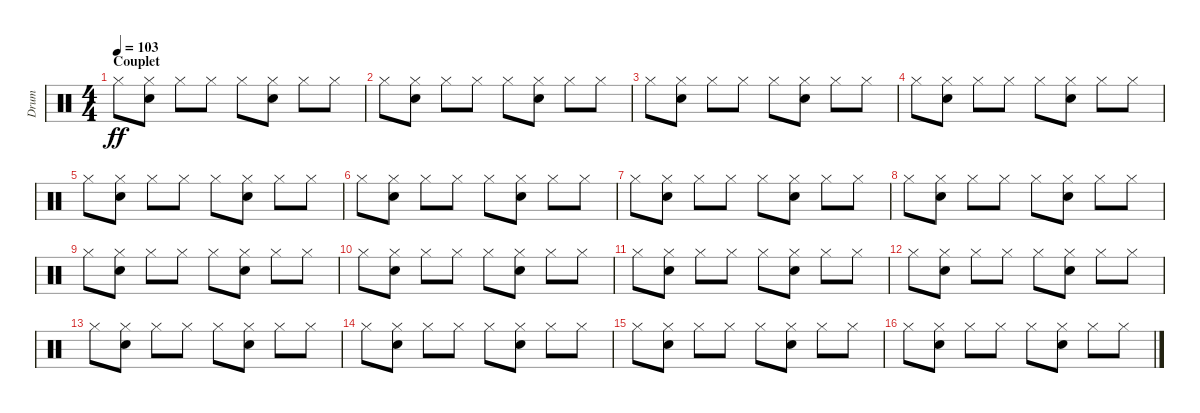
\track ("Drum" "Drum") {instrument percussion}
\staff {score}
\articulation defaults
\ts (4 4)
\section ("" "Couplet")
\tempo 103
\clef neutral
\ks c "Hi-Hat (closed)".8{dy ff}
("Hi-Hat (closed)" "Electric Snare (hit)").8 "Hi-Hat (closed)".8 "Hi-Hat (closed)".8 "Hi-Hat (closed)".8 ("Hi-Hat (closed)" "Electric Snare (hit)").8 "Hi-Hat (closed)".8 "Hi-Hat (closed)".8 |
"Hi-Hat (closed)".8 ("Hi-Hat (closed)" "Electric Snare (hit)").8 "Hi-Hat (closed)".8 "Hi-Hat (closed)".8 "Hi-Hat (closed)".8 ("Hi-Hat (closed)" "Electric Snare (hit)").8 "Hi-Hat (closed)".8 "Hi-Hat (closed)".8 |
"Hi-Hat (closed)".8 ("Hi-Hat (closed)" "Electric Snare (hit)").8 "Hi-Hat (closed)".8 "Hi-Hat (closed)".8 "Hi-Hat (closed)".8 ("Hi-Hat (closed)" "Electric Snare (hit)").8 "Hi-Hat (closed)".8 "Hi-Hat (closed)".8 |
"Hi-Hat (closed)".8 ("Hi-Hat (closed)" "Electric Snare (hit)").8 "Hi-Hat (closed)".8 "Hi-Hat (closed)".8 "Hi-Hat (closed)".8 ("Hi-Hat (closed)" "Electric Snare (hit)").8 "Hi-Hat (closed)".8 "Hi-Hat (closed)".8 |
"Hi-Hat (closed)".8 ("Hi-Hat (closed)" "Electric Snare (hit)").8 "Hi-Hat (closed)".8 "Hi-Hat (closed)".8 "Hi-Hat (closed)".8 ("Hi-Hat (closed)" "Electric Snare (hit)").8 "Hi-Hat (closed)".8 "Hi-Hat (closed)".8 |
"Hi-Hat (closed)".8 ("Hi-Hat (closed)" "Electric Snare (hit)").8 "Hi-Hat (closed)".8 "Hi-Hat (closed)".8 "Hi-Hat (closed)".8 ("Hi-Hat (closed)" "Electric Snare (hit)").8 "Hi-Hat (closed)".8 "Hi-Hat (closed)".8 |
"Hi-Hat (closed)".8 ("Hi-Hat (closed)" "Electric Snare (hit)").8 "Hi-Hat (closed)".8 "Hi-Hat (closed)".8 "Hi-Hat (closed)".8 ("Hi-Hat (closed)" "Electric Snare (hit)").8 "Hi-Hat (closed)".8 "Hi-Hat (closed)".8 |
"Hi-Hat (closed)".8 ("Hi-Hat (closed)" "Electric Snare (hit)").8 "Hi-Hat (closed)".8 "Hi-Hat (closed)".8 "Hi-Hat (closed)".8 ("Hi-Hat (closed)" "Electric Snare (hit)").8 "Hi-Hat (closed)".8 "Hi-Hat (closed)".8 |
"Hi-Hat (closed)".8 ("Hi-Hat (closed)" "Electric Snare (hit)").8 "Hi-Hat (closed)".8 "Hi-Hat (closed)".8 "Hi-Hat (closed)".8 ("Hi-Hat (closed)" "Electric Snare (hit)").8 "Hi-Hat (closed)".8 "Hi-Hat (closed)".8 |
"Hi-Hat (closed)".8 ("Hi-Hat (closed)" "Electric Snare (hit)").8 "Hi-Hat (closed)".8 "Hi-Hat (closed)".8 "Hi-Hat (closed)".8 ("Hi-Hat (closed)" "Electric Snare (hit)").8 "Hi-Hat (closed)".8 "Hi-Hat (closed)".8 |
"Hi-Hat (closed)".8 ("Hi-Hat (closed)" "Electric Snare (hit)").8 "Hi-Hat (closed)".8 "Hi-Hat (closed)".8 "Hi-Hat (closed)".8 ("Hi-Hat (closed)" "Electric Snare (hit)").8 "Hi-Hat (closed)".8 "Hi-Hat (closed)".8 |
"Hi-Hat (closed)".8 ("Hi-Hat (closed)" "Electric Snare (hit)").8 "Hi-Hat (closed)".8 "Hi-Hat (closed)".8 "Hi-Hat (closed)".8 ("Hi-Hat (closed)" "Electric Snare (hit)").8 "Hi-Hat (closed)".8 "Hi-Hat (closed)".8 |
"Hi-Hat (closed)".8 ("Hi-Hat (closed)" "Electric Snare (hit)").8 "Hi-Hat (closed)".8 "Hi-Hat (closed)".8 "Hi-Hat (closed)".8 ("Hi-Hat (closed)" "Electric Snare (hit)").8 "Hi-Hat (closed)".8 "Hi-Hat (closed)".8 |
"Hi-Hat (closed)".8 ("Hi-Hat (closed)" "Electric Snare (hit)").8 "Hi-Hat (closed)".8 "Hi-Hat (closed)".8 "Hi-Hat (closed)".8 ("Hi-Hat (closed)" "Electric Snare (hit)").8 "Hi-Hat (closed)".8 "Hi-Hat (closed)".8 |
"Hi-Hat (closed)".8 ("Hi-Hat (closed)" "Electric Snare (hit)").8 "Hi-Hat (closed)".8 "Hi-Hat (closed)".8 "Hi-Hat (closed)".8 ("Hi-Hat (closed)" "Electric Snare (hit)").8 "Hi-Hat (closed)".8 "Hi-Hat (closed)".8 |
"Hi-Hat (closed)".8 ("Hi-Hat (closed)" "Electric Snare (hit)").8 "Hi-Hat (closed)".8 "Hi-Hat (closed)".8 "Hi-Hat (closed)".8 ("Hi-Hat (closed)" "Electric Snare (hit)").8 "Hi-Hat (closed)".8 "Hi-Hat (closed)".8
